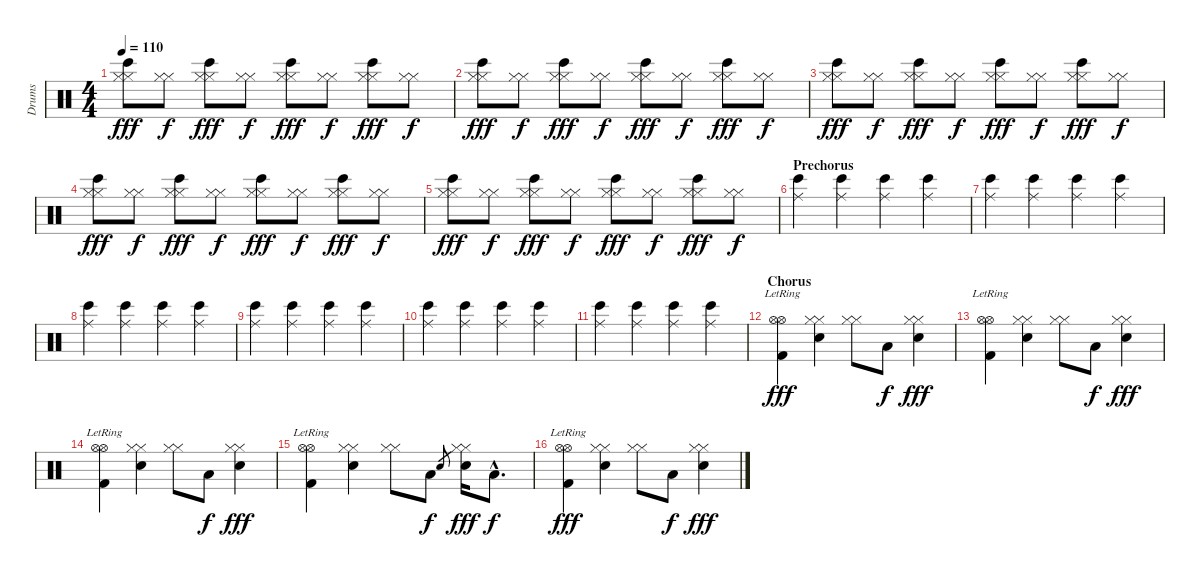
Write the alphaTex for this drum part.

\track ("Drums" "Drums") {instrument percussion}
\staff {score}
\articulation defaults
\ts (4 4)
\tempo 110
\clef neutral
\ks c
("Hi-Hat (closed)" "Hi-Hat (closed)" "Bongo High (hit)").8{dy fff} ("Hi-Hat (closed)" "Hi-Hat (closed)").8{dy f} ("Hi-Hat (closed)" "Hi-Hat (closed)" "Bongo High (hit)").8{dy fff} ("Hi-Hat (closed)" "Hi-Hat (closed)").8{dy f} ("Hi-Hat (closed)" "Hi-Hat (closed)" "Bongo High (hit)").8{dy fff} ("Hi-Hat (closed)" "Hi-Hat (closed)").8{dy f} ("Hi-Hat (closed)" "Hi-Hat (closed)" "Bongo High (hit)").8{dy fff} ("Hi-Hat (closed)" "Hi-Hat (closed)").8{dy f} |
("Hi-Hat (closed)" "Hi-Hat (closed)" "Bongo High (hit)").8{dy fff} ("Hi-Hat (closed)" "Hi-Hat (closed)").8{dy f} ("Hi-Hat (closed)" "Hi-Hat (closed)" "Bongo High (hit)").8{dy fff} ("Hi-Hat (closed)" "Hi-Hat (closed)").8{dy f} ("Hi-Hat (closed)" "Hi-Hat (closed)" "Bongo High (hit)").8{dy fff} ("Hi-Hat (closed)" "Hi-Hat (closed)").8{dy f} ("Hi-Hat (closed)" "Hi-Hat (closed)" "Bongo High (hit)").8{dy fff} ("Hi-Hat (closed)" "Hi-Hat (closed)").8{dy f} |
("Hi-Hat (closed)" "Hi-Hat (closed)" "Bongo High (hit)").8{dy fff} ("Hi-Hat (closed)" "Hi-Hat (closed)").8{dy f} ("Hi-Hat (closed)" "Hi-Hat (closed)" "Bongo High (hit)").8{dy fff} ("Hi-Hat (closed)" "Hi-Hat (closed)").8{dy f} ("Hi-Hat (closed)" "Hi-Hat (closed)" "Bongo High (hit)").8{dy fff} ("Hi-Hat (closed)" "Hi-Hat (closed)").8{dy f} ("Hi-Hat (closed)" "Hi-Hat (closed)" "Bongo High (hit)").8{dy fff} ("Hi-Hat (closed)" "Hi-Hat (closed)").8{dy f} |
("Hi-Hat (closed)" "Hi-Hat (closed)" "Bongo High (hit)").8{dy fff} ("Hi-Hat (closed)" "Hi-Hat (closed)").8{dy f} ("Hi-Hat (closed)" "Hi-Hat (closed)" "Bongo High (hit)").8{dy fff} ("Hi-Hat (closed)" "Hi-Hat (closed)").8{dy f} ("Hi-Hat (closed)" "Hi-Hat (closed)" "Bongo High (hit)").8{dy fff} ("Hi-Hat (closed)" "Hi-Hat (closed)").8{dy f} ("Hi-Hat (closed)" "Hi-Hat (closed)" "Bongo High (hit)").8{dy fff} ("Hi-Hat (closed)" "Hi-Hat (closed)").8{dy f} |
("Hi-Hat (closed)" "Hi-Hat (closed)" "Bongo High (hit)").8{dy fff} ("Hi-Hat (closed)" "Hi-Hat (closed)").8{dy f} ("Hi-Hat (closed)" "Hi-Hat (closed)" "Bongo High (hit)").8{dy fff} ("Hi-Hat (closed)" "Hi-Hat (closed)").8{dy f} ("Hi-Hat (closed)" "Hi-Hat (closed)" "Bongo High (hit)").8{dy fff} ("Hi-Hat (closed)" "Hi-Hat (closed)").8{dy f} ("Hi-Hat (closed)" "Hi-Hat (closed)" "Bongo High (hit)").8{dy fff} ("Hi-Hat (closed)" "Hi-Hat (closed)").8{dy f} |
\section ("" "Prechorus")
("Ride (middle)" "Bongo High (hit)").4 ("Ride (middle)" "Bongo High (hit)").4 ("Ride (middle)" "Bongo High (hit)").4 ("Ride (middle)" "Bongo High (hit)").4 |
("Ride (middle)" "Bongo High (hit)").4 ("Ride (middle)" "Bongo High (hit)").4 ("Ride (middle)" "Bongo High (hit)").4 ("Ride (middle)" "Bongo High (hit)").4 |
("Ride (middle)" "Bongo High (hit)").4 ("Ride (middle)" "Bongo High (hit)").4 ("Ride (middle)" "Bongo High (hit)").4 ("Ride (middle)" "Bongo High (hit)").4 |
("Ride (middle)" "Bongo High (hit)").4 ("Ride (middle)" "Bongo High (hit)").4 ("Ride (middle)" "Bongo High (hit)").4 ("Ride (middle)" "Bongo High (hit)").4 |
("Ride (middle)" "Bongo High (hit)").4 ("Ride (middle)" "Bongo High (hit)").4 ("Ride (middle)" "Bongo High (hit)").4 ("Ride (middle)" "Bongo High (hit)").4 |
("Ride (middle)" "Bongo High (hit)").4 ("Ride (middle)" "Bongo High (hit)").4 ("Ride (middle)" "Bongo High (hit)").4 ("Ride (middle)" "Bongo High (hit)").4 |
\section ("" "Chorus")
("Hi-Hat (open)"{lr} "Hi-Hat (open)"{lr} "Kick (hit) 2").4{dy fff} ("Hi-Hat (closed)" "Hi-Hat (closed)" "Electric Snare (hit)").4 ("Hi-Hat (closed)" "Hi-Hat (closed)").8 "Low Tom (hit)".8{dy f} ("Hi-Hat (closed)" "Hi-Hat (closed)" "Electric Snare (hit)").4{dy fff} |
("Hi-Hat (open)"{lr} "Hi-Hat (open)"{lr} "Kick (hit) 2").4 ("Hi-Hat (closed)" "Hi-Hat (closed)" "Electric Snare (hit)").4 ("Hi-Hat (closed)" "Hi-Hat (closed)").8 "Low Tom (hit)".8{dy f} ("Hi-Hat (closed)" "Hi-Hat (closed)" "Electric Snare (hit)").4{dy fff} |
("Hi-Hat (open)"{lr} "Hi-Hat (open)"{lr} "Kick (hit) 2").4 ("Hi-Hat (closed)" "Hi-Hat (closed)" "Electric Snare (hit)").4 ("Hi-Hat (closed)" "Hi-Hat (closed)").8 "Low Tom (hit)".8{dy f} ("Hi-Hat (closed)" "Hi-Hat (closed)" "Electric Snare (hit)").4{dy fff} |
("Hi-Hat (open)"{lr} "Hi-Hat (open)"{lr} "Kick (hit) 2").4 ("Hi-Hat (closed)" "Hi-Hat (closed)" "Electric Snare (hit)").4 ("Hi-Hat (closed)" "Hi-Hat (closed)").8 "Low Tom (hit)".8{dy f} "Electric Snare (hit)".8{gr} ("Hi-Hat (closed)" "Hi-Hat (closed)" "Electric Snare (hit)").16{dy fff} "Low Tom (hit)"{hac}.8{d dy f} |
("Hi-Hat (open)"{lr} "Hi-Hat (open)"{lr} "Kick (hit) 2").4{dy fff} ("Hi-Hat (closed)" "Hi-Hat (closed)" "Electric Snare (hit)").4 ("Hi-Hat (closed)" "Hi-Hat (closed)").8 "Low Tom (hit)".8{dy f} ("Hi-Hat (closed)" "Hi-Hat (closed)" "Electric Snare (hit)").4{dy fff}
